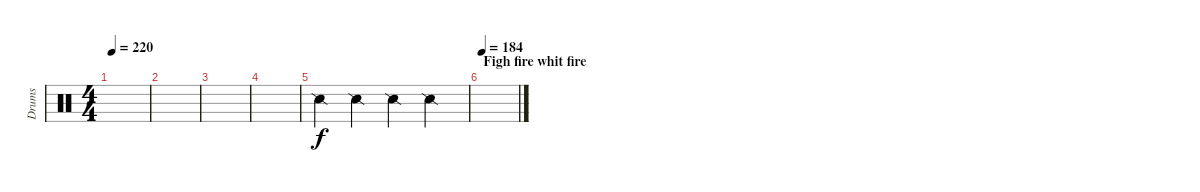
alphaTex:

\track ("Drums" "Drums") {instrument percussion}
\staff {score}
\articulation defaults
\ts (4 4)
\tempo 220
\clef neutral
\ks c
|
|
|
|
"Snare (side stick) 2".4 "Snare (side stick) 2".4 "Snare (side stick) 2".4 "Snare (side stick) 2".4 |
\section ("" "Figh fire whit fire")
\tempo 184
